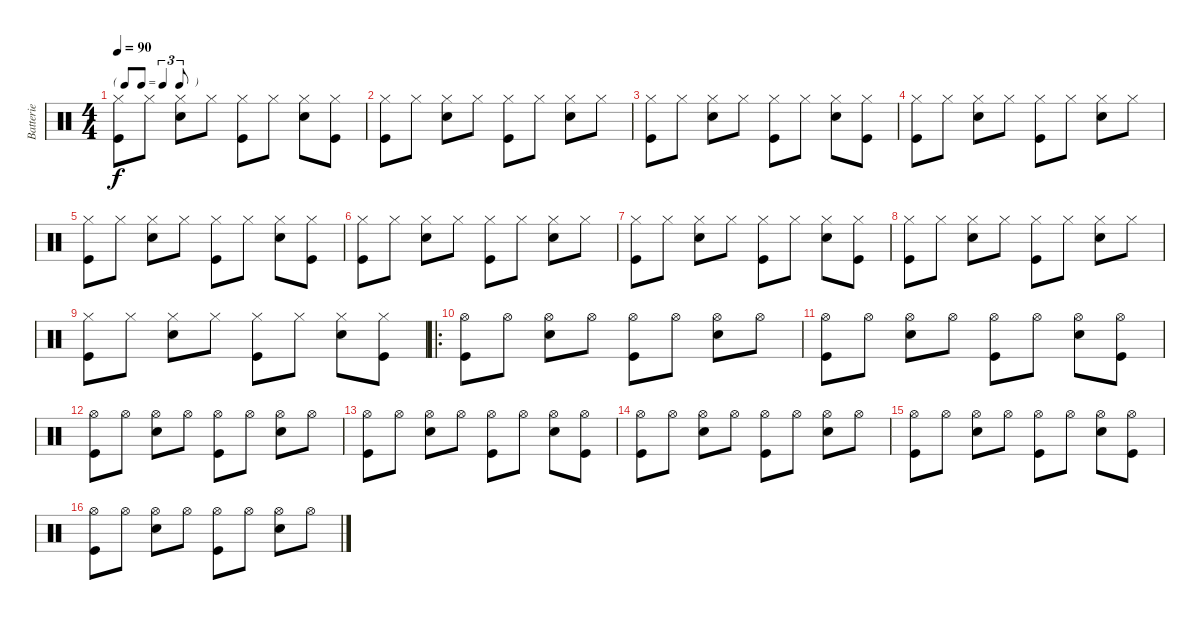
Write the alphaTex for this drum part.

\track ("Batterie" "Batterie") {instrument percussion}
\staff {score}
\articulation defaults
\ts (4 4)
\tf triplet8th
\tempo 90
\clef neutral
\ks c
("Hi-Hat (closed)" "Kick (hit)").8{dy f} "Hi-Hat (closed)".8 ("Hi-Hat (closed)" "Snare (hit) 2").8 "Hi-Hat (closed)".8 ("Hi-Hat (closed)" "Kick (hit)").8 "Hi-Hat (closed)".8 ("Hi-Hat (closed)" "Snare (hit) 2").8 ("Hi-Hat (closed)" "Kick (hit)").8 |
("Hi-Hat (closed)" "Kick (hit)").8 "Hi-Hat (closed)".8 ("Hi-Hat (closed)" "Snare (hit) 2").8 "Hi-Hat (closed)".8 ("Hi-Hat (closed)" "Kick (hit)").8 "Hi-Hat (closed)".8 ("Hi-Hat (closed)" "Snare (hit) 2").8 "Hi-Hat (closed)".8 |
("Hi-Hat (closed)" "Kick (hit)").8 "Hi-Hat (closed)".8 ("Hi-Hat (closed)" "Snare (hit) 2").8 "Hi-Hat (closed)".8 ("Hi-Hat (closed)" "Kick (hit)").8 "Hi-Hat (closed)".8 ("Hi-Hat (closed)" "Snare (hit) 2").8 ("Hi-Hat (closed)" "Kick (hit)").8 |
("Hi-Hat (closed)" "Kick (hit)").8 "Hi-Hat (closed)".8 ("Hi-Hat (closed)" "Snare (hit) 2").8 "Hi-Hat (closed)".8 ("Hi-Hat (closed)" "Kick (hit)").8 "Hi-Hat (closed)".8 ("Hi-Hat (closed)" "Snare (hit) 2").8 "Hi-Hat (closed)".8 |
("Hi-Hat (closed)" "Kick (hit)").8 "Hi-Hat (closed)".8 ("Hi-Hat (closed)" "Snare (hit) 2").8 "Hi-Hat (closed)".8 ("Hi-Hat (closed)" "Kick (hit)").8 "Hi-Hat (closed)".8 ("Hi-Hat (closed)" "Snare (hit) 2").8 ("Hi-Hat (closed)" "Kick (hit)").8 |
("Hi-Hat (closed)" "Kick (hit)").8 "Hi-Hat (closed)".8 ("Hi-Hat (closed)" "Snare (hit) 2").8 "Hi-Hat (closed)".8 ("Hi-Hat (closed)" "Kick (hit)").8 "Hi-Hat (closed)".8 ("Hi-Hat (closed)" "Snare (hit) 2").8 "Hi-Hat (closed)".8 |
("Hi-Hat (closed)" "Kick (hit)").8 "Hi-Hat (closed)".8 ("Hi-Hat (closed)" "Snare (hit) 2").8 "Hi-Hat (closed)".8 ("Hi-Hat (closed)" "Kick (hit)").8 "Hi-Hat (closed)".8 ("Hi-Hat (closed)" "Snare (hit) 2").8 ("Hi-Hat (closed)" "Kick (hit)").8 |
("Hi-Hat (closed)" "Kick (hit)").8 "Hi-Hat (closed)".8 ("Hi-Hat (closed)" "Snare (hit) 2").8 "Hi-Hat (closed)".8 ("Hi-Hat (closed)" "Kick (hit)").8 "Hi-Hat (closed)".8 ("Hi-Hat (closed)" "Snare (hit) 2").8 "Hi-Hat (closed)".8 |
("Hi-Hat (closed)" "Kick (hit)").8 "Hi-Hat (closed)".8 ("Hi-Hat (closed)" "Snare (hit) 2").8 "Hi-Hat (closed)".8 ("Hi-Hat (closed)" "Kick (hit)").8 "Hi-Hat (closed)".8 ("Hi-Hat (closed)" "Snare (hit) 2").8 ("Hi-Hat (closed)" "Kick (hit)").8 |
\ro
("Hi-Hat (open)" "Kick (hit)").8 "Hi-Hat (open)".8 ("Hi-Hat (open)" "Snare (hit) 2").8 "Hi-Hat (open)".8 ("Hi-Hat (open)" "Kick (hit)").8 "Hi-Hat (open)".8 ("Hi-Hat (open)" "Snare (hit) 2").8 "Hi-Hat (open)".8 |
("Hi-Hat (open)" "Kick (hit)").8 "Hi-Hat (open)".8 ("Hi-Hat (open)" "Snare (hit) 2").8 "Hi-Hat (open)".8 ("Hi-Hat (open)" "Kick (hit)").8 "Hi-Hat (open)".8 ("Hi-Hat (open)" "Snare (hit) 2").8 ("Hi-Hat (open)" "Kick (hit)").8 |
("Hi-Hat (open)" "Kick (hit)").8 "Hi-Hat (open)".8 ("Hi-Hat (open)" "Snare (hit) 2").8 "Hi-Hat (open)".8 ("Hi-Hat (open)" "Kick (hit)").8 "Hi-Hat (open)".8 ("Hi-Hat (open)" "Snare (hit) 2").8 "Hi-Hat (open)".8 |
("Hi-Hat (open)" "Kick (hit)").8 "Hi-Hat (open)".8 ("Hi-Hat (open)" "Snare (hit) 2").8 "Hi-Hat (open)".8 ("Hi-Hat (open)" "Kick (hit)").8 "Hi-Hat (open)".8 ("Hi-Hat (open)" "Snare (hit) 2").8 ("Hi-Hat (open)" "Kick (hit)").8 |
("Hi-Hat (open)" "Kick (hit)").8 "Hi-Hat (open)".8 ("Hi-Hat (open)" "Snare (hit) 2").8 "Hi-Hat (open)".8 ("Hi-Hat (open)" "Kick (hit)").8 "Hi-Hat (open)".8 ("Hi-Hat (open)" "Snare (hit) 2").8 "Hi-Hat (open)".8 |
("Hi-Hat (open)" "Kick (hit)").8 "Hi-Hat (open)".8 ("Hi-Hat (open)" "Snare (hit) 2").8 "Hi-Hat (open)".8 ("Hi-Hat (open)" "Kick (hit)").8 "Hi-Hat (open)".8 ("Hi-Hat (open)" "Snare (hit) 2").8 ("Hi-Hat (open)" "Kick (hit)").8 |
("Hi-Hat (open)" "Kick (hit)").8 "Hi-Hat (open)".8 ("Hi-Hat (open)" "Snare (hit) 2").8 "Hi-Hat (open)".8 ("Hi-Hat (open)" "Kick (hit)").8 "Hi-Hat (open)".8 ("Hi-Hat (open)" "Snare (hit) 2").8 "Hi-Hat (open)".8
